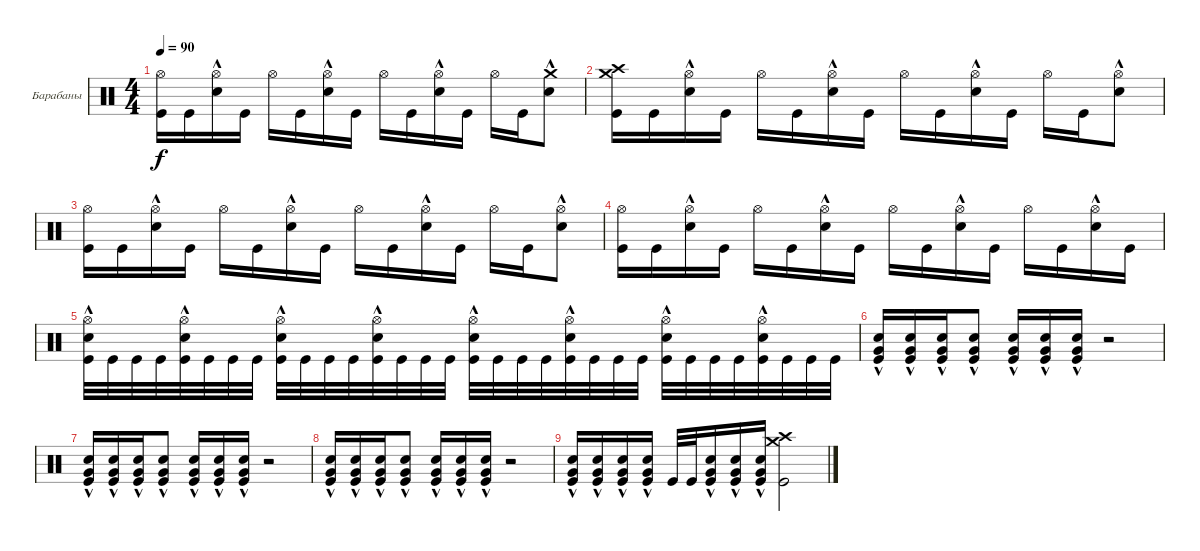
\bracketExtendMode groupsimilarinstruments
\firstSystemTrackNameOrientation horizontal
\otherSystemsTrackNameOrientation horizontal
\track ("Ударные" "Барабаны") {instrument percussion}
\staff {score}
\articulation defaults
\ts (4 4)
\tempo 90
\clef neutral
\ks c
("Hi-Hat (open)" "Kick (hit)").16{dy f} "Kick (hit)".16 ("Hi-Hat (open)" "Snare (hit) 2"{hac}).16 "Kick (hit)".16 "Hi-Hat (open)".16 "Kick (hit)".16 ("Hi-Hat (open)" "Snare (hit) 2"{hac}).16 "Kick (hit)".16 "Hi-Hat (open)".16 "Kick (hit)".16 ("Hi-Hat (open)" "Snare (hit) 2"{hac}).16 "Kick (hit)".16 "Hi-Hat (open)".16 "Kick (hit)".16 ("Crash medium (hit)" "Snare (hit) 2"{hac}).8 |
("Crash medium (hit)" "Kick (hit)" "Crash high (hit)").16 "Kick (hit)".16 ("Hi-Hat (open)" "Snare (hit) 2"{hac}).16 "Kick (hit)".16 "Hi-Hat (open)".16 "Kick (hit)".16 ("Hi-Hat (open)" "Snare (hit) 2"{hac}).16 "Kick (hit)".16 "Hi-Hat (open)".16 "Kick (hit)".16 ("Hi-Hat (open)" "Snare (hit) 2"{hac}).16 "Kick (hit)".16 "Hi-Hat (open)".16 "Kick (hit)".16 ("Hi-Hat (open)" "Snare (hit) 2"{hac}).8 |
("Hi-Hat (open)" "Kick (hit)").16 "Kick (hit)".16 ("Hi-Hat (open)" "Snare (hit) 2"{hac}).16 "Kick (hit)".16 "Hi-Hat (open)".16 "Kick (hit)".16 ("Hi-Hat (open)" "Snare (hit) 2"{hac}).16 "Kick (hit)".16 "Hi-Hat (open)".16 "Kick (hit)".16 ("Hi-Hat (open)" "Snare (hit) 2"{hac}).16 "Kick (hit)".16 "Hi-Hat (open)".16 "Kick (hit)".16 ("Hi-Hat (open)" "Snare (hit) 2"{hac}).8 |
("Hi-Hat (open)" "Kick (hit)").16 "Kick (hit)".16 ("Hi-Hat (open)" "Snare (hit) 2"{hac}).16 "Kick (hit)".16 "Hi-Hat (open)".16 "Kick (hit)".16 ("Hi-Hat (open)" "Snare (hit) 2"{hac}).16 "Kick (hit)".16 "Hi-Hat (open)".16 "Kick (hit)".16 ("Hi-Hat (open)" "Snare (hit) 2"{hac}).16 "Kick (hit)".16 "Hi-Hat (open)".16 "Kick (hit)".16 ("Hi-Hat (open)" "Snare (hit) 2"{hac}).16 "Kick (hit)".16 |
("Hi-Hat (open)" "Kick (hit)" "Snare (hit) 2"{hac}).32 "Kick (hit)".32 "Kick (hit)".32 "Kick (hit)".32 ("Hi-Hat (open)" "Kick (hit)" "Snare (hit) 2"{hac}).32 "Kick (hit)".32 "Kick (hit)".32 "Kick (hit)".32 ("Hi-Hat (open)" "Kick (hit)" "Snare (hit) 2"{hac}).32 "Kick (hit)".32 "Kick (hit)".32 "Kick (hit)".32 ("Hi-Hat (open)" "Kick (hit)" "Snare (hit) 2"{hac}).32 "Kick (hit)".32 "Kick (hit)".32 "Kick (hit)".32 ("Hi-Hat (open)" "Kick (hit)" "Snare (hit) 2"{hac}).32 "Kick (hit)".32 "Kick (hit)".32 "Kick (hit)".32 ("Hi-Hat (open)" "Kick (hit)" "Snare (hit) 2"{hac}).32 "Kick (hit)".32 "Kick (hit)".32 "Kick (hit)".32 ("Hi-Hat (open)" "Kick (hit)" "Snare (hit) 2"{hac}).32 "Kick (hit)".32 "Kick (hit)".32 "Kick (hit)".32 ("Hi-Hat (open)" "Kick (hit)" "Snare (hit) 2"{hac}).32 "Kick (hit)".32 "Kick (hit)".32 "Kick (hit)".32 |
("Kick (hit)" "Snare (hit) 2"{hac} "Very Low Tom (hit)"{hac}).16 ("Kick (hit)" "Snare (hit) 2"{hac} "Very Low Tom (hit)"{hac}).16 ("Kick (hit)" "Snare (hit) 2"{hac} "Very Low Tom (hit)"{hac}).16 ("Kick (hit)" "Snare (hit) 2"{hac} "Very Low Tom (hit)"{hac}).8 ("Kick (hit)" "Snare (hit) 2"{hac} "Very Low Tom (hit)"{hac}).16 ("Kick (hit)" "Snare (hit) 2"{hac} "Very Low Tom (hit)"{hac}).16 ("Kick (hit)" "Snare (hit) 2"{hac} "Very Low Tom (hit)"{hac}).16 r.2 |
("Kick (hit)" "Snare (hit) 2"{hac} "Very Low Tom (hit)"{hac}).16 ("Kick (hit)" "Snare (hit) 2"{hac} "Very Low Tom (hit)"{hac}).16 ("Kick (hit)" "Snare (hit) 2"{hac} "Very Low Tom (hit)"{hac}).16 ("Kick (hit)" "Snare (hit) 2"{hac} "Very Low Tom (hit)"{hac}).8 ("Kick (hit)" "Snare (hit) 2"{hac} "Very Low Tom (hit)"{hac}).16 ("Kick (hit)" "Snare (hit) 2"{hac} "Very Low Tom (hit)"{hac}).16 ("Kick (hit)" "Snare (hit) 2"{hac} "Very Low Tom (hit)"{hac}).16 r.2 |
("Kick (hit)" "Snare (hit) 2"{hac} "Very Low Tom (hit)"{hac}).16 ("Kick (hit)" "Snare (hit) 2"{hac} "Very Low Tom (hit)"{hac}).16 ("Kick (hit)" "Snare (hit) 2"{hac} "Very Low Tom (hit)"{hac}).16 ("Kick (hit)" "Snare (hit) 2"{hac} "Very Low Tom (hit)"{hac}).8 ("Kick (hit)" "Snare (hit) 2"{hac} "Very Low Tom (hit)"{hac}).16 ("Kick (hit)" "Snare (hit) 2"{hac} "Very Low Tom (hit)"{hac}).16 ("Kick (hit)" "Snare (hit) 2"{hac} "Very Low Tom (hit)"{hac}).16 r.2 |
("Kick (hit)" "Snare (hit) 2"{hac} "Very Low Tom (hit)"{hac}).16 ("Kick (hit)" "Snare (hit) 2"{hac} "Very Low Tom (hit)"{hac}).16 ("Kick (hit)" "Snare (hit) 2"{hac} "Very Low Tom (hit)"{hac}).16 ("Kick (hit)" "Snare (hit) 2"{hac} "Very Low Tom (hit)"{hac}).16 "Kick (hit)".32 "Kick (hit)".32 ("Kick (hit)" "Snare (hit) 2"{hac} "Very Low Tom (hit)"{hac}).16 ("Kick (hit)" "Snare (hit) 2"{hac} "Very Low Tom (hit)"{hac}).16 ("Kick (hit)" "Snare (hit) 2"{hac} "Very Low Tom (hit)"{hac}).16 ("Crash medium (hit)" "Kick (hit)" "Crash high (hit)").2
